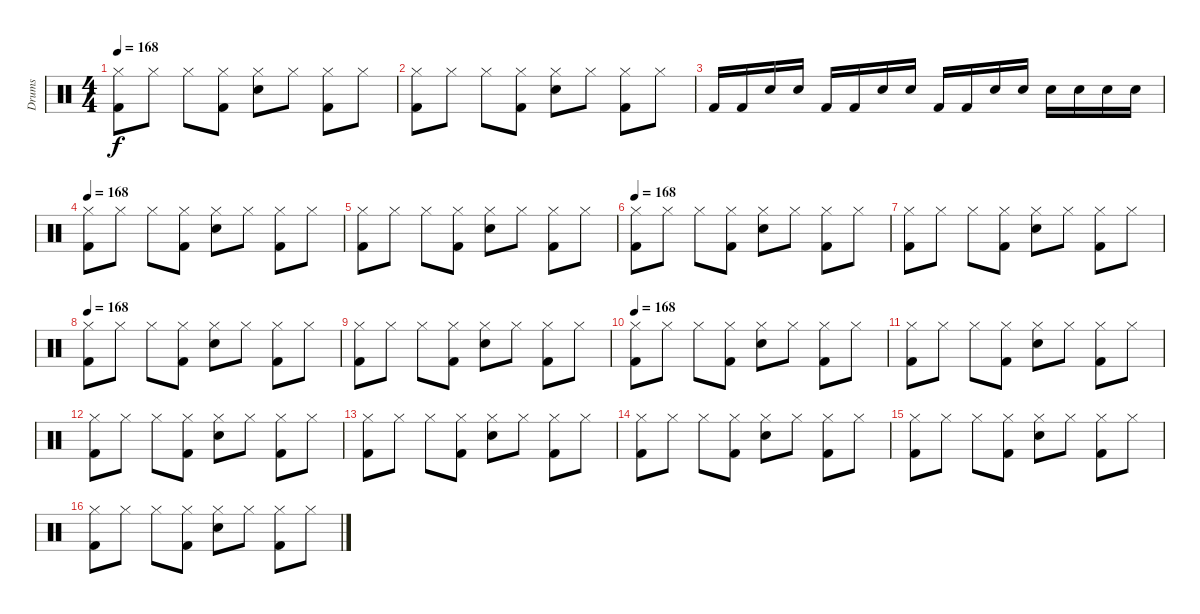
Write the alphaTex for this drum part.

\track ("Drums" "Drums") {instrument percussion}
\staff {score}
\articulation defaults
\ts (4 4)
\tempo 168
\clef neutral
\ks c
("Kick (hit) 2" "Hi-Hat (closed)").8{dy f} "Hi-Hat (closed)".8 "Hi-Hat (closed)".8 ("Kick (hit) 2" "Hi-Hat (closed)").8 ("Snare (hit) 2" "Hi-Hat (closed)").8 "Hi-Hat (closed)".8 ("Kick (hit) 2" "Hi-Hat (closed)").8 "Hi-Hat (closed)".8 |
("Kick (hit) 2" "Hi-Hat (closed)").8 "Hi-Hat (closed)".8 "Hi-Hat (closed)".8 ("Kick (hit) 2" "Hi-Hat (closed)").8 ("Snare (hit) 2" "Hi-Hat (closed)").8 "Hi-Hat (closed)".8 ("Kick (hit) 2" "Hi-Hat (closed)").8 "Hi-Hat (closed)".8 |
"Kick (hit) 2".16 "Kick (hit) 2".16 "Snare (hit) 2".16 "Snare (hit) 2".16 "Kick (hit) 2".16 "Kick (hit) 2".16 "Snare (hit) 2".16 "Snare (hit) 2".16 "Kick (hit) 2".16 "Kick (hit) 2".16 "Snare (hit) 2".16 "Snare (hit) 2".16 "Snare (hit) 2".16 "Snare (hit) 2".16 "Snare (hit) 2".16 "Snare (hit) 2".16 |
\tempo 168
("Kick (hit) 2" "Hi-Hat (closed)").8 "Hi-Hat (closed)".8 "Hi-Hat (closed)".8 ("Kick (hit) 2" "Hi-Hat (closed)").8 ("Snare (hit) 2" "Hi-Hat (closed)").8 "Hi-Hat (closed)".8 ("Kick (hit) 2" "Hi-Hat (closed)").8 "Hi-Hat (closed)".8 |
("Kick (hit) 2" "Hi-Hat (closed)").8 "Hi-Hat (closed)".8 "Hi-Hat (closed)".8 ("Kick (hit) 2" "Hi-Hat (closed)").8 ("Snare (hit) 2" "Hi-Hat (closed)").8 "Hi-Hat (closed)".8 ("Kick (hit) 2" "Hi-Hat (closed)").8 "Hi-Hat (closed)".8 |
\tempo 168
("Kick (hit) 2" "Hi-Hat (closed)").8 "Hi-Hat (closed)".8 "Hi-Hat (closed)".8 ("Kick (hit) 2" "Hi-Hat (closed)").8 ("Snare (hit) 2" "Hi-Hat (closed)").8 "Hi-Hat (closed)".8 ("Kick (hit) 2" "Hi-Hat (closed)").8 "Hi-Hat (closed)".8 |
("Kick (hit) 2" "Hi-Hat (closed)").8 "Hi-Hat (closed)".8 "Hi-Hat (closed)".8 ("Kick (hit) 2" "Hi-Hat (closed)").8 ("Snare (hit) 2" "Hi-Hat (closed)").8 "Hi-Hat (closed)".8 ("Kick (hit) 2" "Hi-Hat (closed)").8 "Hi-Hat (closed)".8 |
\tempo 168
("Kick (hit) 2" "Hi-Hat (closed)").8 "Hi-Hat (closed)".8 "Hi-Hat (closed)".8 ("Kick (hit) 2" "Hi-Hat (closed)").8 ("Snare (hit) 2" "Hi-Hat (closed)").8 "Hi-Hat (closed)".8 ("Kick (hit) 2" "Hi-Hat (closed)").8 "Hi-Hat (closed)".8 |
("Kick (hit) 2" "Hi-Hat (closed)").8 "Hi-Hat (closed)".8 "Hi-Hat (closed)".8 ("Kick (hit) 2" "Hi-Hat (closed)").8 ("Snare (hit) 2" "Hi-Hat (closed)").8 "Hi-Hat (closed)".8 ("Kick (hit) 2" "Hi-Hat (closed)").8 "Hi-Hat (closed)".8 |
\tempo 168
("Kick (hit) 2" "Hi-Hat (closed)").8 "Hi-Hat (closed)".8 "Hi-Hat (closed)".8 ("Kick (hit) 2" "Hi-Hat (closed)").8 ("Snare (hit) 2" "Hi-Hat (closed)").8 "Hi-Hat (closed)".8 ("Kick (hit) 2" "Hi-Hat (closed)").8 "Hi-Hat (closed)".8 |
("Kick (hit) 2" "Hi-Hat (closed)").8 "Hi-Hat (closed)".8 "Hi-Hat (closed)".8 ("Kick (hit) 2" "Hi-Hat (closed)").8 ("Snare (hit) 2" "Hi-Hat (closed)").8 "Hi-Hat (closed)".8 ("Kick (hit) 2" "Hi-Hat (closed)").8 "Hi-Hat (closed)".8 |
("Kick (hit) 2" "Hi-Hat (closed)").8 "Hi-Hat (closed)".8 "Hi-Hat (closed)".8 ("Kick (hit) 2" "Hi-Hat (closed)").8 ("Snare (hit) 2" "Hi-Hat (closed)").8 "Hi-Hat (closed)".8 ("Kick (hit) 2" "Hi-Hat (closed)").8 "Hi-Hat (closed)".8 |
("Kick (hit) 2" "Hi-Hat (closed)").8 "Hi-Hat (closed)".8 "Hi-Hat (closed)".8 ("Kick (hit) 2" "Hi-Hat (closed)").8 ("Snare (hit) 2" "Hi-Hat (closed)").8 "Hi-Hat (closed)".8 ("Kick (hit) 2" "Hi-Hat (closed)").8 "Hi-Hat (closed)".8 |
("Kick (hit) 2" "Hi-Hat (closed)").8 "Hi-Hat (closed)".8 "Hi-Hat (closed)".8 ("Kick (hit) 2" "Hi-Hat (closed)").8 ("Snare (hit) 2" "Hi-Hat (closed)").8 "Hi-Hat (closed)".8 ("Kick (hit) 2" "Hi-Hat (closed)").8 "Hi-Hat (closed)".8 |
("Kick (hit) 2" "Hi-Hat (closed)").8 "Hi-Hat (closed)".8 "Hi-Hat (closed)".8 ("Kick (hit) 2" "Hi-Hat (closed)").8 ("Snare (hit) 2" "Hi-Hat (closed)").8 "Hi-Hat (closed)".8 ("Kick (hit) 2" "Hi-Hat (closed)").8 "Hi-Hat (closed)".8 |
("Kick (hit) 2" "Hi-Hat (closed)").8 "Hi-Hat (closed)".8 "Hi-Hat (closed)".8 ("Kick (hit) 2" "Hi-Hat (closed)").8 ("Snare (hit) 2" "Hi-Hat (closed)").8 "Hi-Hat (closed)".8 ("Kick (hit) 2" "Hi-Hat (closed)").8 "Hi-Hat (closed)".8
